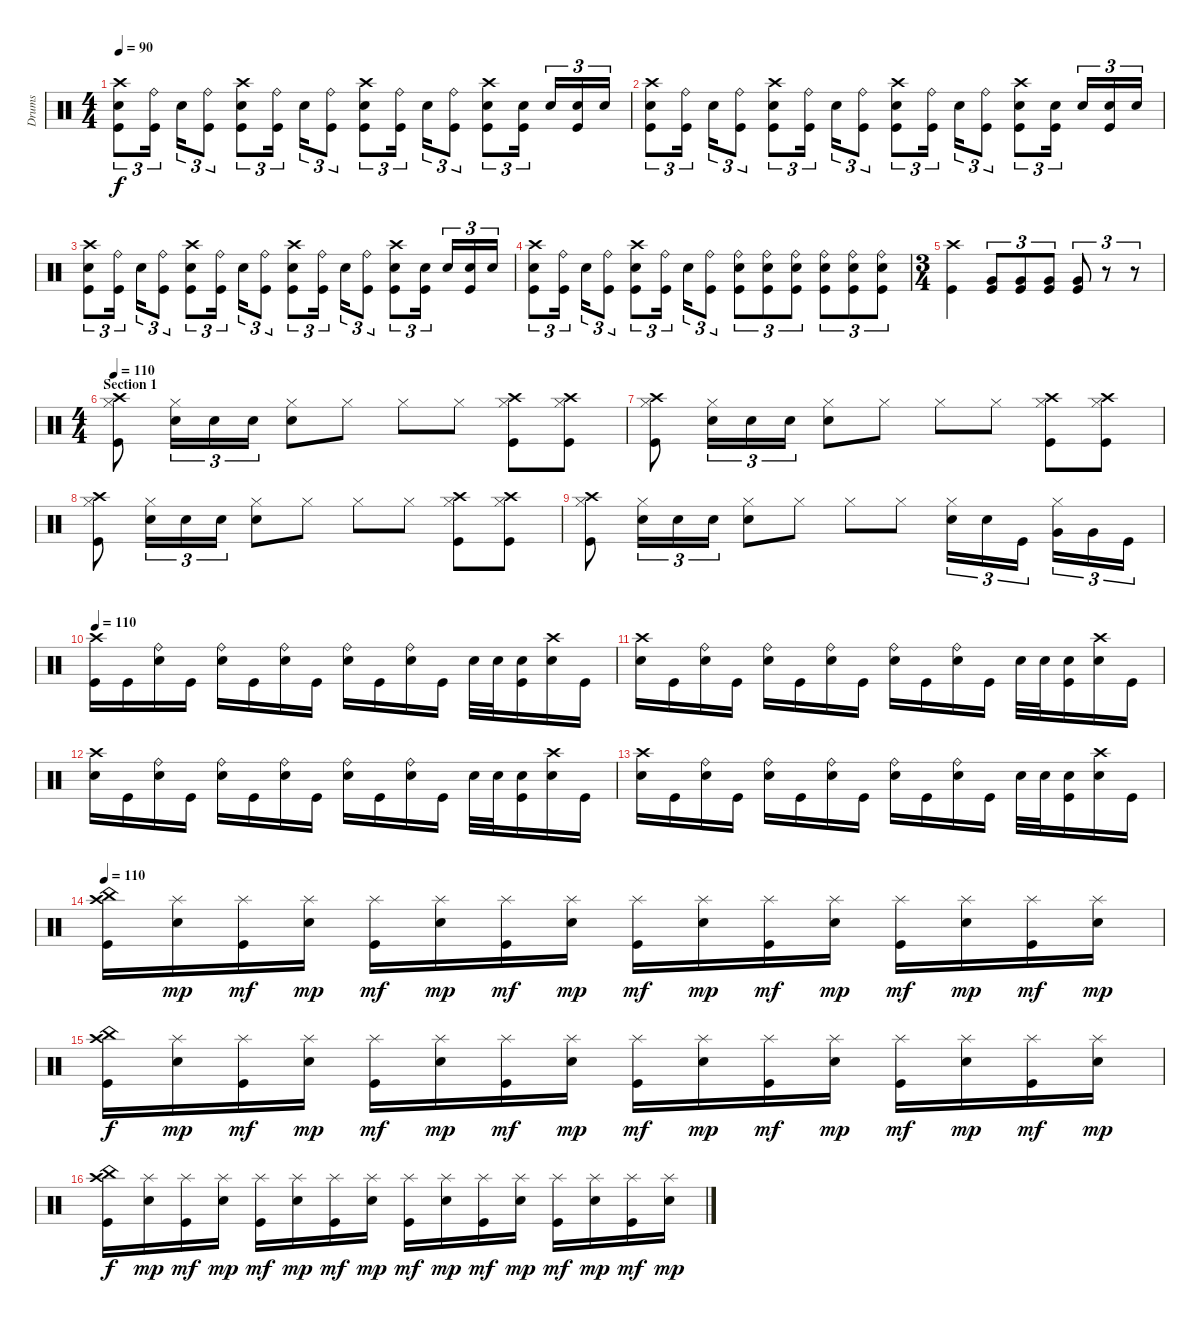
\track ("Drums" "Drums") {instrument percussion}
\staff {score}
\articulation defaults
\ts (4 4)
\tempo 90
\clef neutral
\ks c
("Crash high (hit)" "Electric Snare (hit)" "Kick (hit)").8{tu (3 2) dy f} ("Ride (bell)" "Kick (hit)").16{tu (3 2)} "Electric Snare (hit)".16{tu (3 2)} ("Ride (bell)" "Kick (hit)").8{tu (3 2)} ("Crash high (hit)" "Electric Snare (hit)" "Kick (hit)").8{tu (3 2)} ("Ride (bell)" "Kick (hit)").16{tu (3 2)} "Electric Snare (hit)".16{tu (3 2)} ("Ride (bell)" "Kick (hit)").8{tu (3 2)} ("Crash high (hit)" "Electric Snare (hit)" "Kick (hit)").8{tu (3 2)} ("Ride (bell)" "Kick (hit)").16{tu (3 2)} "Electric Snare (hit)".16{tu (3 2)} ("Ride (bell)" "Kick (hit)").8{tu (3 2)} ("Crash high (hit)" "Electric Snare (hit)" "Kick (hit)").8{tu (3 2)} ("Electric Snare (hit)" "Kick (hit)").16{tu (3 2)} "Electric Snare (hit)".16{tu (3 2)} ("Electric Snare (hit)" "Kick (hit)").16{tu (3 2)} "Electric Snare (hit)".16{tu (3 2)} |
("Crash high (hit)" "Electric Snare (hit)" "Kick (hit)").8{tu (3 2)} ("Ride (bell)" "Kick (hit)").16{tu (3 2)} "Electric Snare (hit)".16{tu (3 2)} ("Ride (bell)" "Kick (hit)").8{tu (3 2)} ("Crash high (hit)" "Electric Snare (hit)" "Kick (hit)").8{tu (3 2)} ("Ride (bell)" "Kick (hit)").16{tu (3 2)} "Electric Snare (hit)".16{tu (3 2)} ("Ride (bell)" "Kick (hit)").8{tu (3 2)} ("Crash high (hit)" "Electric Snare (hit)" "Kick (hit)").8{tu (3 2)} ("Ride (bell)" "Kick (hit)").16{tu (3 2)} "Electric Snare (hit)".16{tu (3 2)} ("Ride (bell)" "Kick (hit)").8{tu (3 2)} ("Crash high (hit)" "Electric Snare (hit)" "Kick (hit)").8{tu (3 2)} ("Electric Snare (hit)" "Kick (hit)").16{tu (3 2)} "Electric Snare (hit)".16{tu (3 2)} ("Electric Snare (hit)" "Kick (hit)").16{tu (3 2)} "Electric Snare (hit)".16{tu (3 2)} |
("Crash high (hit)" "Electric Snare (hit)" "Kick (hit)").8{tu (3 2)} ("Ride (bell)" "Kick (hit)").16{tu (3 2)} "Electric Snare (hit)".16{tu (3 2)} ("Ride (bell)" "Kick (hit)").8{tu (3 2)} ("Crash high (hit)" "Electric Snare (hit)" "Kick (hit)").8{tu (3 2)} ("Ride (bell)" "Kick (hit)").16{tu (3 2)} "Electric Snare (hit)".16{tu (3 2)} ("Ride (bell)" "Kick (hit)").8{tu (3 2)} ("Crash high (hit)" "Electric Snare (hit)" "Kick (hit)").8{tu (3 2)} ("Ride (bell)" "Kick (hit)").16{tu (3 2)} "Electric Snare (hit)".16{tu (3 2)} ("Ride (bell)" "Kick (hit)").8{tu (3 2)} ("Crash high (hit)" "Electric Snare (hit)" "Kick (hit)").8{tu (3 2)} ("Electric Snare (hit)" "Kick (hit)").16{tu (3 2)} "Electric Snare (hit)".16{tu (3 2)} ("Electric Snare (hit)" "Kick (hit)").16{tu (3 2)} "Electric Snare (hit)".16{tu (3 2)} |
("Crash high (hit)" "Electric Snare (hit)" "Kick (hit)").8{tu (3 2)} ("Ride (bell)" "Kick (hit)").16{tu (3 2)} "Electric Snare (hit)".16{tu (3 2)} ("Ride (bell)" "Kick (hit)").8{tu (3 2)} ("Crash high (hit)" "Electric Snare (hit)" "Kick (hit)").8{tu (3 2)} ("Ride (bell)" "Kick (hit)").16{tu (3 2)} "Electric Snare (hit)".16{tu (3 2)} ("Ride (bell)" "Kick (hit)").8{tu (3 2)} ("Ride (bell)" "Electric Snare (hit)" "Kick (hit)").8{tu (3 2)} ("Ride (bell)" "Electric Snare (hit)" "Kick (hit)").8{tu (3 2)} ("Ride (bell)" "Electric Snare (hit)" "Kick (hit)").8{tu (3 2)} ("Ride (bell)" "Electric Snare (hit)" "Kick (hit)").8{tu (3 2)} ("Ride (bell)" "Electric Snare (hit)" "Kick (hit)").8{tu (3 2)} ("Ride (bell)" "Electric Snare (hit)" "Kick (hit)").8{tu (3 2)} |
\ts (3 4)
("Crash high (hit)" "Kick (hit)").4 ("Very Low Tom (hit)" "Kick (hit)").8{tu (3 2)} ("Very Low Tom (hit)" "Kick (hit)").8{tu (3 2)} ("Very Low Tom (hit)" "Kick (hit)").8{tu (3 2)} ("Very Low Tom (hit)" "Kick (hit)").8{tu (3 2)} r.8{tu (3 2)} r.8{tu (3 2)} |
\ts (4 4)
\section ("" "Section 1")
\tempo 110
("Crash high (hit)" "Hi-Hat (closed)" "Kick (hit)").8 ("Hi-Hat (closed)" "Electric Snare (hit)").16{tu (3 2)} "Electric Snare (hit)".16{tu (3 2)} "Electric Snare (hit)".16{tu (3 2)} ("Hi-Hat (closed)" "Electric Snare (hit)").8 "Hi-Hat (closed)".8 "Hi-Hat (closed)".8 "Hi-Hat (closed)".8 ("Crash high (hit)" "Hi-Hat (closed)" "Kick (hit)").8 ("Crash high (hit)" "Hi-Hat (closed)" "Kick (hit)").8 |
("Crash high (hit)" "Hi-Hat (closed)" "Kick (hit)").8 ("Hi-Hat (closed)" "Electric Snare (hit)").16{tu (3 2)} "Electric Snare (hit)".16{tu (3 2)} "Electric Snare (hit)".16{tu (3 2)} ("Hi-Hat (closed)" "Electric Snare (hit)").8 "Hi-Hat (closed)".8 "Hi-Hat (closed)".8 "Hi-Hat (closed)".8 ("Crash high (hit)" "Hi-Hat (closed)" "Kick (hit)").8 ("Crash high (hit)" "Hi-Hat (closed)" "Kick (hit)").8 |
("Crash high (hit)" "Hi-Hat (closed)" "Kick (hit)").8 ("Hi-Hat (closed)" "Electric Snare (hit)").16{tu (3 2)} "Electric Snare (hit)".16{tu (3 2)} "Electric Snare (hit)".16{tu (3 2)} ("Hi-Hat (closed)" "Electric Snare (hit)").8 "Hi-Hat (closed)".8 "Hi-Hat (closed)".8 "Hi-Hat (closed)".8 ("Crash high (hit)" "Hi-Hat (closed)" "Kick (hit)").8 ("Crash high (hit)" "Hi-Hat (closed)" "Kick (hit)").8 |
("Crash high (hit)" "Hi-Hat (closed)" "Kick (hit)").8 ("Hi-Hat (closed)" "Electric Snare (hit)").16{tu (3 2)} "Electric Snare (hit)".16{tu (3 2)} "Electric Snare (hit)".16{tu (3 2)} ("Hi-Hat (closed)" "Electric Snare (hit)").8 "Hi-Hat (closed)".8 "Hi-Hat (closed)".8 "Hi-Hat (closed)".8 ("Hi-Hat (closed)" "Electric Snare (hit)").16{tu (3 2)} "Electric Snare (hit)".16{tu (3 2)} "Kick (hit)".16{tu (3 2)} ("Hi-Hat (closed)" "Very Low Tom (hit)").16{tu (3 2)} "Very Low Tom (hit)".16{tu (3 2)} "Kick (hit)".16{tu (3 2)} |
\tempo 110
("Crash high (hit)" "Kick (hit)").16 "Kick (hit)".16 ("Ride (bell)" "Electric Snare (hit)").16 "Kick (hit)".16 ("Ride (bell)" "Electric Snare (hit)").16 "Kick (hit)".16 ("Ride (bell)" "Electric Snare (hit)").16 "Kick (hit)".16 ("Ride (bell)" "Electric Snare (hit)").16 "Kick (hit)".16 ("Ride (bell)" "Electric Snare (hit)").16 "Kick (hit)".16 "Electric Snare (hit)".32 "Electric Snare (hit)".32 ("Electric Snare (hit)" "Kick (hit)").16 ("Crash high (hit)" "Electric Snare (hit)").16 "Kick (hit)".16 |
("Crash high (hit)" "Electric Snare (hit)").16 "Kick (hit)".16 ("Ride (bell)" "Electric Snare (hit)").16 "Kick (hit)".16 ("Ride (bell)" "Electric Snare (hit)").16 "Kick (hit)".16 ("Ride (bell)" "Electric Snare (hit)").16 "Kick (hit)".16 ("Ride (bell)" "Electric Snare (hit)").16 "Kick (hit)".16 ("Ride (bell)" "Electric Snare (hit)").16 "Kick (hit)".16 "Electric Snare (hit)".32 "Electric Snare (hit)".32 ("Electric Snare (hit)" "Kick (hit)").16 ("Crash high (hit)" "Electric Snare (hit)").16 "Kick (hit)".16 |
("Crash high (hit)" "Electric Snare (hit)").16 "Kick (hit)".16 ("Ride (bell)" "Electric Snare (hit)").16 "Kick (hit)".16 ("Ride (bell)" "Electric Snare (hit)").16 "Kick (hit)".16 ("Ride (bell)" "Electric Snare (hit)").16 "Kick (hit)".16 ("Ride (bell)" "Electric Snare (hit)").16 "Kick (hit)".16 ("Ride (bell)" "Electric Snare (hit)").16 "Kick (hit)".16 "Electric Snare (hit)".32 "Electric Snare (hit)".32 ("Electric Snare (hit)" "Kick (hit)").16 ("Crash high (hit)" "Electric Snare (hit)").16 "Kick (hit)".16 |
("Crash high (hit)" "Electric Snare (hit)").16 "Kick (hit)".16 ("Ride (bell)" "Electric Snare (hit)").16 "Kick (hit)".16 ("Ride (bell)" "Electric Snare (hit)").16 "Kick (hit)".16 ("Ride (bell)" "Electric Snare (hit)").16 "Kick (hit)".16 ("Ride (bell)" "Electric Snare (hit)").16 "Kick (hit)".16 ("Ride (bell)" "Electric Snare (hit)").16 "Kick (hit)".16 "Electric Snare (hit)".32 "Electric Snare (hit)".32 ("Electric Snare (hit)" "Kick (hit)").16 ("Crash high (hit)" "Electric Snare (hit)").16 "Kick (hit)".16 |
\tempo 110
("China (hit)" "Crash high (hit)" "Kick (hit)").16 ("Splash (hit)" "Electric Snare (hit)").16{dy mp} ("Splash (hit)" "Kick (hit)").16{dy mf} ("Splash (hit)" "Electric Snare (hit)").16{dy mp} ("Splash (hit)" "Kick (hit)").16{dy mf} ("Splash (hit)" "Electric Snare (hit)").16{dy mp} ("Splash (hit)" "Kick (hit)").16{dy mf} ("Splash (hit)" "Electric Snare (hit)").16{dy mp} ("Splash (hit)" "Kick (hit)").16{dy mf} ("Splash (hit)" "Electric Snare (hit)").16{dy mp} ("Splash (hit)" "Kick (hit)").16{dy mf} ("Splash (hit)" "Electric Snare (hit)").16{dy mp} ("Splash (hit)" "Kick (hit)").16{dy mf} ("Splash (hit)" "Electric Snare (hit)").16{dy mp} ("Splash (hit)" "Kick (hit)").16{dy mf} ("Splash (hit)" "Electric Snare (hit)").16{dy mp} |
("China (hit)" "Crash high (hit)" "Kick (hit)").16{dy f} ("Splash (hit)" "Electric Snare (hit)").16{dy mp} ("Splash (hit)" "Kick (hit)").16{dy mf} ("Splash (hit)" "Electric Snare (hit)").16{dy mp} ("Splash (hit)" "Kick (hit)").16{dy mf} ("Splash (hit)" "Electric Snare (hit)").16{dy mp} ("Splash (hit)" "Kick (hit)").16{dy mf} ("Splash (hit)" "Electric Snare (hit)").16{dy mp} ("Splash (hit)" "Kick (hit)").16{dy mf} ("Splash (hit)" "Electric Snare (hit)").16{dy mp} ("Splash (hit)" "Kick (hit)").16{dy mf} ("Splash (hit)" "Electric Snare (hit)").16{dy mp} ("Splash (hit)" "Kick (hit)").16{dy mf} ("Splash (hit)" "Electric Snare (hit)").16{dy mp} ("Splash (hit)" "Kick (hit)").16{dy mf} ("Splash (hit)" "Electric Snare (hit)").16{dy mp} |
("China (hit)" "Crash high (hit)" "Kick (hit)").16{dy f} ("Splash (hit)" "Electric Snare (hit)").16{dy mp} ("Splash (hit)" "Kick (hit)").16{dy mf} ("Splash (hit)" "Electric Snare (hit)").16{dy mp} ("Splash (hit)" "Kick (hit)").16{dy mf} ("Splash (hit)" "Electric Snare (hit)").16{dy mp} ("Splash (hit)" "Kick (hit)").16{dy mf} ("Splash (hit)" "Electric Snare (hit)").16{dy mp} ("Splash (hit)" "Kick (hit)").16{dy mf} ("Splash (hit)" "Electric Snare (hit)").16{dy mp} ("Splash (hit)" "Kick (hit)").16{dy mf} ("Splash (hit)" "Electric Snare (hit)").16{dy mp} ("Splash (hit)" "Kick (hit)").16{dy mf} ("Splash (hit)" "Electric Snare (hit)").16{dy mp} ("Splash (hit)" "Kick (hit)").16{dy mf} ("Splash (hit)" "Electric Snare (hit)").16{dy mp}
